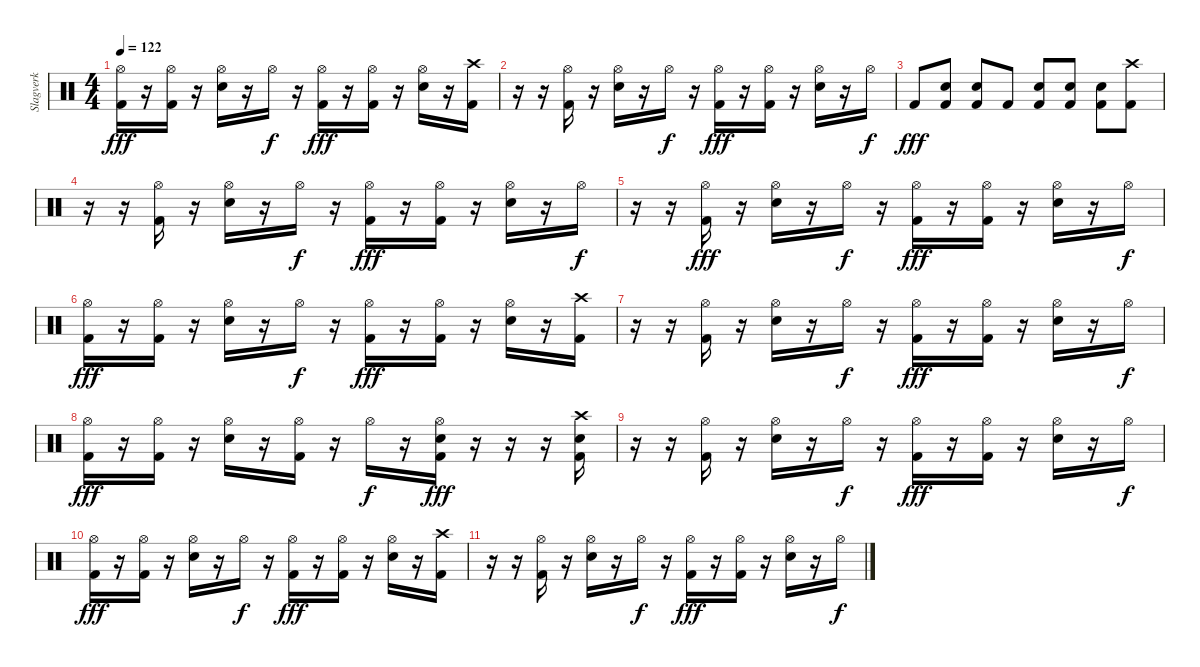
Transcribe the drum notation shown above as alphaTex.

\track ("Slagverk" "Slagverk") {instrument percussion}
\staff {score}
\articulation defaults
\ts (4 4)
\tempo 122
\clef neutral
\ks c
("Hi-Hat (open)" "Kick (hit) 2").16{dy fff} r.16 ("Hi-Hat (open)" "Kick (hit) 2").16 r.16 ("Hi-Hat (open)" "Electric Snare (hit)").16 r.16 "Hi-Hat (open)".16{dy f} r.16 ("Hi-Hat (open)" "Kick (hit) 2").16{dy fff} r.16 ("Hi-Hat (open)" "Kick (hit) 2").16 r.16 ("Hi-Hat (open)" "Electric Snare (hit)").16 r.16 ("Crash high (hit)" "Kick (hit) 2").16 |
r.16 r.16 ("Hi-Hat (open)" "Kick (hit) 2").16 r.16 ("Hi-Hat (open)" "Electric Snare (hit)").16 r.16 "Hi-Hat (open)".16{dy f} r.16 ("Hi-Hat (open)" "Kick (hit) 2").16{dy fff} r.16 ("Hi-Hat (open)" "Kick (hit) 2").16 r.16 ("Hi-Hat (open)" "Electric Snare (hit)").16 r.16 "Hi-Hat (open)".16{dy f} |
"Kick (hit) 2".8{dy fff} ("Electric Snare (hit)" "Kick (hit) 2").8 ("Electric Snare (hit)" "Kick (hit) 2").8 "Kick (hit) 2".8 ("Electric Snare (hit)" "Kick (hit) 2").8 ("Electric Snare (hit)" "Kick (hit) 2").8 ("Electric Snare (hit)" "Kick (hit) 2").8 ("Crash high (hit)" "Kick (hit) 2").8 |
r.16 r.16 ("Hi-Hat (open)" "Kick (hit) 2").16 r.16 ("Hi-Hat (open)" "Electric Snare (hit)").16 r.16 "Hi-Hat (open)".16{dy f} r.16 ("Hi-Hat (open)" "Kick (hit) 2").16{dy fff} r.16 ("Hi-Hat (open)" "Kick (hit) 2").16 r.16 ("Hi-Hat (open)" "Electric Snare (hit)").16 r.16 "Hi-Hat (open)".16{dy f} |
r.16 r.16 ("Hi-Hat (open)" "Kick (hit) 2").16{dy fff} r.16 ("Hi-Hat (open)" "Electric Snare (hit)").16 r.16 "Hi-Hat (open)".16{dy f} r.16 ("Hi-Hat (open)" "Kick (hit) 2").16{dy fff} r.16 ("Hi-Hat (open)" "Kick (hit) 2").16 r.16 ("Hi-Hat (open)" "Electric Snare (hit)").16 r.16 "Hi-Hat (open)".16{dy f} |
("Hi-Hat (open)" "Kick (hit) 2").16{dy fff} r.16 ("Hi-Hat (open)" "Kick (hit) 2").16 r.16 ("Hi-Hat (open)" "Electric Snare (hit)").16 r.16 "Hi-Hat (open)".16{dy f} r.16 ("Hi-Hat (open)" "Kick (hit) 2").16{dy fff} r.16 ("Hi-Hat (open)" "Kick (hit) 2").16 r.16 ("Hi-Hat (open)" "Electric Snare (hit)").16 r.16 ("Crash high (hit)" "Kick (hit) 2").16 |
r.16 r.16 ("Hi-Hat (open)" "Kick (hit) 2").16 r.16 ("Hi-Hat (open)" "Electric Snare (hit)").16 r.16 "Hi-Hat (open)".16{dy f} r.16 ("Hi-Hat (open)" "Kick (hit) 2").16{dy fff} r.16 ("Hi-Hat (open)" "Kick (hit) 2").16 r.16 ("Hi-Hat (open)" "Electric Snare (hit)").16 r.16 "Hi-Hat (open)".16{dy f} |
("Hi-Hat (open)" "Kick (hit) 2").16{dy fff} r.16 ("Hi-Hat (open)" "Kick (hit) 2").16 r.16 ("Hi-Hat (open)" "Electric Snare (hit)").16 r.16 ("Hi-Hat (open)" "Kick (hit) 2").16 r.16 "Hi-Hat (open)".16{dy f} r.16 ("Hi-Hat (open)" "Electric Snare (hit)" "Kick (hit) 2").16{dy fff} r.16 r.16 r.16 ("Crash high (hit)" "Electric Snare (hit)" "Kick (hit) 2").16 |
r.16 r.16 ("Hi-Hat (open)" "Kick (hit) 2").16 r.16 ("Hi-Hat (open)" "Electric Snare (hit)").16 r.16 "Hi-Hat (open)".16{dy f} r.16 ("Hi-Hat (open)" "Kick (hit) 2").16{dy fff} r.16 ("Hi-Hat (open)" "Kick (hit) 2").16 r.16 ("Hi-Hat (open)" "Electric Snare (hit)").16 r.16 "Hi-Hat (open)".16{dy f} |
("Hi-Hat (open)" "Kick (hit) 2").16{dy fff} r.16 ("Hi-Hat (open)" "Kick (hit) 2").16 r.16 ("Hi-Hat (open)" "Electric Snare (hit)").16 r.16 "Hi-Hat (open)".16{dy f} r.16 ("Hi-Hat (open)" "Kick (hit) 2").16{dy fff} r.16 ("Hi-Hat (open)" "Kick (hit) 2").16 r.16 ("Hi-Hat (open)" "Electric Snare (hit)").16 r.16 ("Crash high (hit)" "Kick (hit) 2").16 |
r.16 r.16 ("Hi-Hat (open)" "Kick (hit) 2").16 r.16 ("Hi-Hat (open)" "Electric Snare (hit)").16 r.16 "Hi-Hat (open)".16{dy f} r.16 ("Hi-Hat (open)" "Kick (hit) 2").16{dy fff} r.16 ("Hi-Hat (open)" "Kick (hit) 2").16 r.16 ("Hi-Hat (open)" "Electric Snare (hit)").16 r.16 "Hi-Hat (open)".16{dy f}
